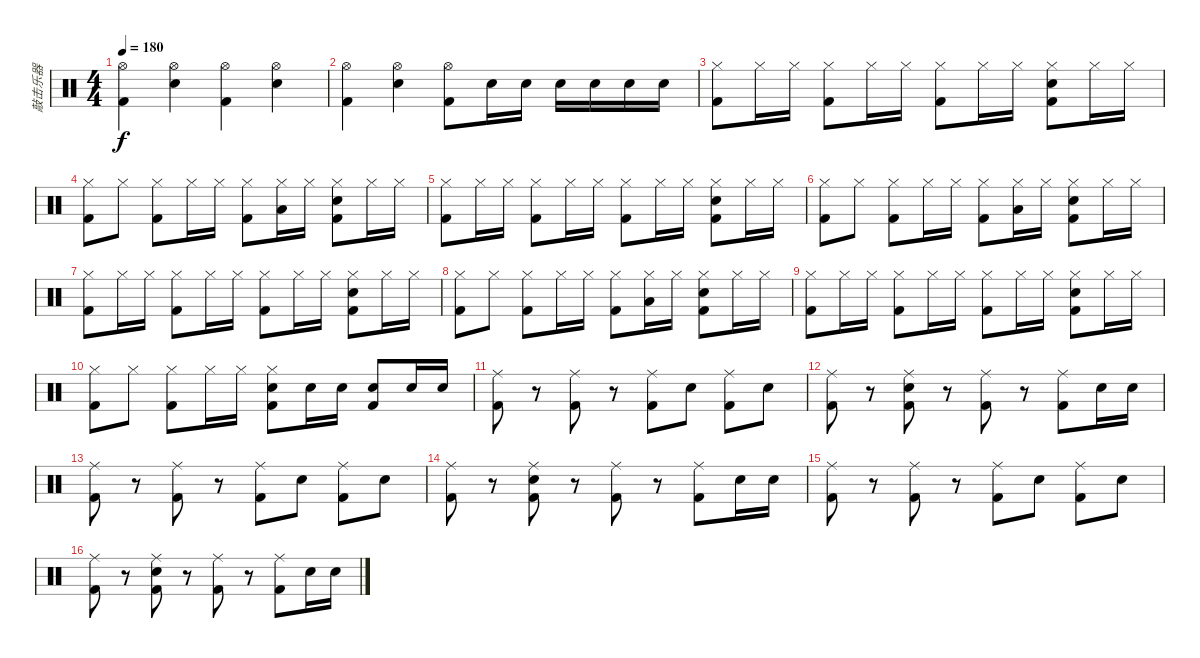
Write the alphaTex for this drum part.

\track ("敲击乐器" "敲击乐器") {instrument percussion}
\staff {score}
\articulation defaults
\ts (4 4)
\tempo 180
\clef neutral
\ks c
("Hi-Hat (open)" "Kick (hit) 2").4{dy f} ("Hi-Hat (open)" "Snare (hit) 2").4 ("Hi-Hat (open)" "Kick (hit) 2").4 ("Hi-Hat (open)" "Snare (hit) 2").4 |
("Hi-Hat (open)" "Kick (hit) 2").4 ("Hi-Hat (open)" "Snare (hit) 2").4 ("Hi-Hat (open)" "Kick (hit) 2").8 "Snare (hit) 2".16 "Snare (hit) 2".16 "Snare (hit) 2".16 "Snare (hit) 2".16 "Snare (hit) 2".16 "Snare (hit) 2".16 |
("Hi-Hat (closed)" "Kick (hit) 2").8 "Hi-Hat (closed)".16 "Hi-Hat (closed)".16 ("Hi-Hat (closed)" "Kick (hit) 2").8 "Hi-Hat (closed)".16 "Hi-Hat (closed)".16 ("Hi-Hat (closed)" "Kick (hit) 2").8 "Hi-Hat (closed)".16 "Hi-Hat (closed)".16 ("Hi-Hat (closed)" "Snare (hit) 2" "Kick (hit) 2").8 "Hi-Hat (closed)".16 "Hi-Hat (closed)".16 |
("Hi-Hat (closed)" "Kick (hit) 2").8 "Hi-Hat (closed)".8 ("Hi-Hat (closed)" "Kick (hit) 2").8 "Hi-Hat (closed)".16 "Hi-Hat (closed)".16 ("Hi-Hat (closed)" "Kick (hit) 2").8 ("Hi-Hat (closed)" "Low Tom (hit)").16 "Hi-Hat (closed)".16 ("Hi-Hat (closed)" "Snare (hit) 2" "Kick (hit) 2").8 "Hi-Hat (closed)".16 "Hi-Hat (closed)".16 |
("Hi-Hat (closed)" "Kick (hit) 2").8 "Hi-Hat (closed)".16 "Hi-Hat (closed)".16 ("Hi-Hat (closed)" "Kick (hit) 2").8 "Hi-Hat (closed)".16 "Hi-Hat (closed)".16 ("Hi-Hat (closed)" "Kick (hit) 2").8 "Hi-Hat (closed)".16 "Hi-Hat (closed)".16 ("Hi-Hat (closed)" "Snare (hit) 2" "Kick (hit) 2").8 "Hi-Hat (closed)".16 "Hi-Hat (closed)".16 |
("Hi-Hat (closed)" "Kick (hit) 2").8 "Hi-Hat (closed)".8 ("Hi-Hat (closed)" "Kick (hit) 2").8 "Hi-Hat (closed)".16 "Hi-Hat (closed)".16 ("Hi-Hat (closed)" "Kick (hit) 2").8 ("Hi-Hat (closed)" "Low Tom (hit)").16 "Hi-Hat (closed)".16 ("Hi-Hat (closed)" "Snare (hit) 2" "Kick (hit) 2").8 "Hi-Hat (closed)".16 "Hi-Hat (closed)".16 |
("Hi-Hat (closed)" "Kick (hit) 2").8 "Hi-Hat (closed)".16 "Hi-Hat (closed)".16 ("Hi-Hat (closed)" "Kick (hit) 2").8 "Hi-Hat (closed)".16 "Hi-Hat (closed)".16 ("Hi-Hat (closed)" "Kick (hit) 2").8 "Hi-Hat (closed)".16 "Hi-Hat (closed)".16 ("Hi-Hat (closed)" "Snare (hit) 2" "Kick (hit) 2").8 "Hi-Hat (closed)".16 "Hi-Hat (closed)".16 |
("Hi-Hat (closed)" "Kick (hit) 2").8 "Hi-Hat (closed)".8 ("Hi-Hat (closed)" "Kick (hit) 2").8 "Hi-Hat (closed)".16 "Hi-Hat (closed)".16 ("Hi-Hat (closed)" "Kick (hit) 2").8 ("Hi-Hat (closed)" "Low Tom (hit)").16 "Hi-Hat (closed)".16 ("Hi-Hat (closed)" "Snare (hit) 2" "Kick (hit) 2").8 "Hi-Hat (closed)".16 "Hi-Hat (closed)".16 |
("Hi-Hat (closed)" "Kick (hit) 2").8 "Hi-Hat (closed)".16 "Hi-Hat (closed)".16 ("Hi-Hat (closed)" "Kick (hit) 2").8 "Hi-Hat (closed)".16 "Hi-Hat (closed)".16 ("Hi-Hat (closed)" "Kick (hit) 2").8 "Hi-Hat (closed)".16 "Hi-Hat (closed)".16 ("Hi-Hat (closed)" "Snare (hit) 2" "Kick (hit) 2").8 "Hi-Hat (closed)".16 "Hi-Hat (closed)".16 |
("Hi-Hat (closed)" "Kick (hit) 2").8 "Hi-Hat (closed)".8 ("Hi-Hat (closed)" "Kick (hit) 2").8 "Hi-Hat (closed)".16 "Hi-Hat (closed)".16 ("Hi-Hat (closed)" "Snare (hit) 2" "Kick (hit) 2").8 "Snare (hit) 2".16 "Snare (hit) 2".16 ("Snare (hit) 2" "Kick (hit) 2").8 "Snare (hit) 2".16 "Snare (hit) 2".16 |
("Ride (middle)" "Kick (hit) 2").8 r.8 ("Ride (middle)" "Kick (hit) 2").8 r.8 ("Ride (middle)" "Kick (hit) 2").8 "Snare (hit) 2".8 ("Ride (middle)" "Kick (hit) 2").8 "Snare (hit) 2".8 |
("Ride (middle)" "Kick (hit) 2").8 r.8 ("Ride (middle)" "Snare (hit) 2" "Kick (hit) 2").8 r.8 ("Ride (middle)" "Kick (hit) 2").8 r.8 ("Ride (middle)" "Kick (hit) 2").8 "Snare (hit) 2".16 "Snare (hit) 2".16 |
("Ride (middle)" "Kick (hit) 2").8 r.8 ("Ride (middle)" "Kick (hit) 2").8 r.8 ("Ride (middle)" "Kick (hit) 2").8 "Snare (hit) 2".8 ("Ride (middle)" "Kick (hit) 2").8 "Snare (hit) 2".8 |
("Ride (middle)" "Kick (hit) 2").8 r.8 ("Ride (middle)" "Snare (hit) 2" "Kick (hit) 2").8 r.8 ("Ride (middle)" "Kick (hit) 2").8 r.8 ("Ride (middle)" "Kick (hit) 2").8 "Snare (hit) 2".16 "Snare (hit) 2".16 |
("Ride (middle)" "Kick (hit) 2").8 r.8 ("Ride (middle)" "Kick (hit) 2").8 r.8 ("Ride (middle)" "Kick (hit) 2").8 "Snare (hit) 2".8 ("Ride (middle)" "Kick (hit) 2").8 "Snare (hit) 2".8 |
("Ride (middle)" "Kick (hit) 2").8 r.8 ("Ride (middle)" "Snare (hit) 2" "Kick (hit) 2").8 r.8 ("Ride (middle)" "Kick (hit) 2").8 r.8 ("Ride (middle)" "Kick (hit) 2").8 "Snare (hit) 2".16 "Snare (hit) 2".16
